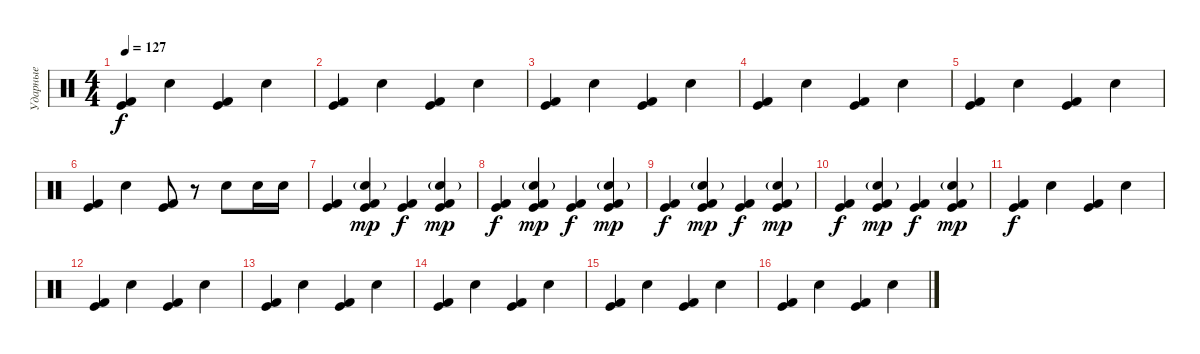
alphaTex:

\track ("Ударные" "Ударные") {instrument percussion}
\staff {score}
\articulation defaults
\ts (4 4)
\tempo 127
\clef neutral
\ks c
("Kick (hit) 2" "Kick (hit)").4{dy f} "Snare (hit) 2".4 ("Kick (hit) 2" "Kick (hit)").4 "Snare (hit) 2".4 |
("Kick (hit) 2" "Kick (hit)").4 "Snare (hit) 2".4 ("Kick (hit) 2" "Kick (hit)").4 "Snare (hit) 2".4 |
("Kick (hit) 2" "Kick (hit)").4 "Snare (hit) 2".4 ("Kick (hit) 2" "Kick (hit)").4 "Snare (hit) 2".4 |
("Kick (hit) 2" "Kick (hit)").4 "Snare (hit) 2".4 ("Kick (hit) 2" "Kick (hit)").4 "Snare (hit) 2".4 |
("Kick (hit) 2" "Kick (hit)").4 "Snare (hit) 2".4 ("Kick (hit) 2" "Kick (hit)").4 "Snare (hit) 2".4 |
("Kick (hit) 2" "Kick (hit)").4 "Snare (hit) 2".4 ("Kick (hit) 2" "Kick (hit)").8 r.8 "Snare (hit) 2".8 "Snare (hit) 2".16 "Snare (hit) 2".16 |
("Kick (hit) 2" "Kick (hit)").4 ("Kick (hit) 2" "Kick (hit)" "Hand Clap (hit)"{g}).4{dy mp} ("Kick (hit) 2" "Kick (hit)").4{dy f} ("Kick (hit) 2" "Kick (hit)" "Hand Clap (hit)"{g}).4{dy mp} |
("Kick (hit) 2" "Kick (hit)").4{dy f} ("Kick (hit) 2" "Kick (hit)" "Hand Clap (hit)"{g}).4{dy mp} ("Kick (hit) 2" "Kick (hit)").4{dy f} ("Kick (hit) 2" "Kick (hit)" "Hand Clap (hit)"{g}).4{dy mp} |
("Kick (hit) 2" "Kick (hit)").4{dy f} ("Kick (hit) 2" "Kick (hit)" "Hand Clap (hit)"{g}).4{dy mp} ("Kick (hit) 2" "Kick (hit)").4{dy f} ("Kick (hit) 2" "Kick (hit)" "Hand Clap (hit)"{g}).4{dy mp} |
("Kick (hit) 2" "Kick (hit)").4{dy f} ("Kick (hit) 2" "Kick (hit)" "Hand Clap (hit)"{g}).4{dy mp} ("Kick (hit) 2" "Kick (hit)").4{dy f} ("Kick (hit) 2" "Kick (hit)" "Hand Clap (hit)"{g}).4{dy mp} |
("Kick (hit) 2" "Kick (hit)").4{dy f} "Snare (hit) 2".4 ("Kick (hit) 2" "Kick (hit)").4 "Snare (hit) 2".4 |
("Kick (hit) 2" "Kick (hit)").4 "Snare (hit) 2".4 ("Kick (hit) 2" "Kick (hit)").4 "Snare (hit) 2".4 |
("Kick (hit) 2" "Kick (hit)").4 "Snare (hit) 2".4 ("Kick (hit) 2" "Kick (hit)").4 "Snare (hit) 2".4 |
("Kick (hit) 2" "Kick (hit)").4 "Snare (hit) 2".4 ("Kick (hit) 2" "Kick (hit)").4 "Snare (hit) 2".4 |
("Kick (hit) 2" "Kick (hit)").4 "Snare (hit) 2".4 ("Kick (hit) 2" "Kick (hit)").4 "Snare (hit) 2".4 |
("Kick (hit) 2" "Kick (hit)").4 "Snare (hit) 2".4 ("Kick (hit) 2" "Kick (hit)").4 "Snare (hit) 2".4
